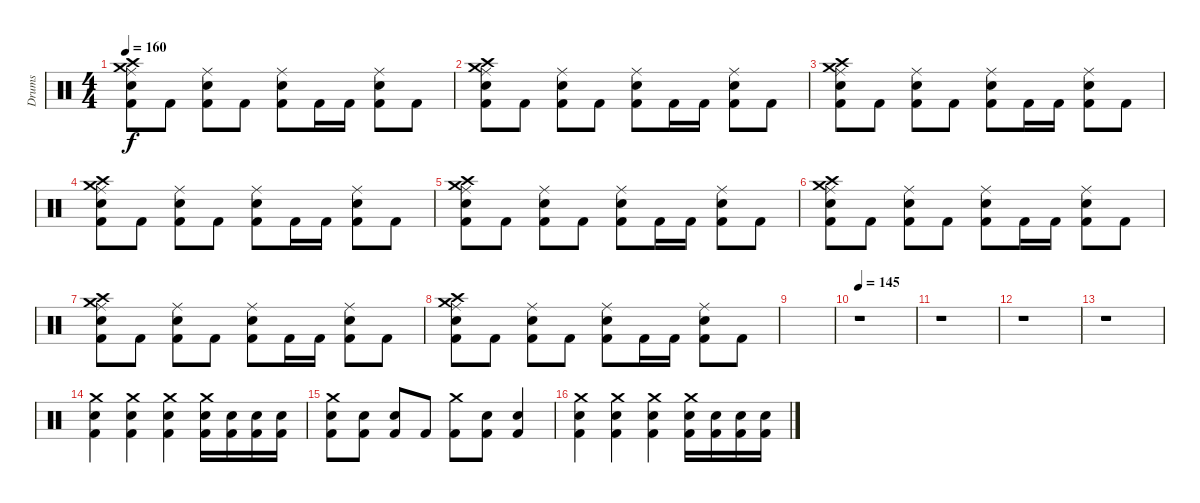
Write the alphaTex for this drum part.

\track ("Drums" "Drums") {instrument percussion}
\staff {score}
\articulation defaults
\ts (4 4)
\tempo 160
\clef neutral
\ks c
("Crash medium (hit)" "Crash high (hit)" "Ride (middle)" "Snare (hit) 2" "Kick (hit) 2").8{dy f} "Kick (hit) 2".8 ("Ride (middle)" "Snare (hit) 2" "Kick (hit) 2").8 "Kick (hit) 2".8 ("Ride (middle)" "Snare (hit) 2" "Kick (hit) 2").8 "Kick (hit) 2".16 "Kick (hit) 2".16 ("Ride (middle)" "Snare (hit) 2" "Kick (hit) 2").8 "Kick (hit) 2".8 |
("Crash medium (hit)" "Crash high (hit)" "Ride (middle)" "Snare (hit) 2" "Kick (hit) 2").8 "Kick (hit) 2".8 ("Ride (middle)" "Snare (hit) 2" "Kick (hit) 2").8 "Kick (hit) 2".8 ("Ride (middle)" "Snare (hit) 2" "Kick (hit) 2").8 "Kick (hit) 2".16 "Kick (hit) 2".16 ("Ride (middle)" "Snare (hit) 2" "Kick (hit) 2").8 "Kick (hit) 2".8 |
("Crash medium (hit)" "Crash high (hit)" "Ride (middle)" "Snare (hit) 2" "Kick (hit) 2").8 "Kick (hit) 2".8 ("Ride (middle)" "Snare (hit) 2" "Kick (hit) 2").8 "Kick (hit) 2".8 ("Ride (middle)" "Snare (hit) 2" "Kick (hit) 2").8 "Kick (hit) 2".16 "Kick (hit) 2".16 ("Ride (middle)" "Snare (hit) 2" "Kick (hit) 2").8 "Kick (hit) 2".8 |
("Crash medium (hit)" "Crash high (hit)" "Ride (middle)" "Snare (hit) 2" "Kick (hit) 2").8 "Kick (hit) 2".8 ("Ride (middle)" "Snare (hit) 2" "Kick (hit) 2").8 "Kick (hit) 2".8 ("Ride (middle)" "Snare (hit) 2" "Kick (hit) 2").8 "Kick (hit) 2".16 "Kick (hit) 2".16 ("Ride (middle)" "Snare (hit) 2" "Kick (hit) 2").8 "Kick (hit) 2".8 |
("Crash medium (hit)" "Crash high (hit)" "Ride (middle)" "Snare (hit) 2" "Kick (hit) 2").8 "Kick (hit) 2".8 ("Ride (middle)" "Snare (hit) 2" "Kick (hit) 2").8 "Kick (hit) 2".8 ("Ride (middle)" "Snare (hit) 2" "Kick (hit) 2").8 "Kick (hit) 2".16 "Kick (hit) 2".16 ("Ride (middle)" "Snare (hit) 2" "Kick (hit) 2").8 "Kick (hit) 2".8 |
("Crash medium (hit)" "Crash high (hit)" "Ride (middle)" "Snare (hit) 2" "Kick (hit) 2").8 "Kick (hit) 2".8 ("Ride (middle)" "Snare (hit) 2" "Kick (hit) 2").8 "Kick (hit) 2".8 ("Ride (middle)" "Snare (hit) 2" "Kick (hit) 2").8 "Kick (hit) 2".16 "Kick (hit) 2".16 ("Ride (middle)" "Snare (hit) 2" "Kick (hit) 2").8 "Kick (hit) 2".8 |
("Crash medium (hit)" "Crash high (hit)" "Ride (middle)" "Snare (hit) 2" "Kick (hit) 2").8 "Kick (hit) 2".8 ("Ride (middle)" "Snare (hit) 2" "Kick (hit) 2").8 "Kick (hit) 2".8 ("Ride (middle)" "Snare (hit) 2" "Kick (hit) 2").8 "Kick (hit) 2".16 "Kick (hit) 2".16 ("Ride (middle)" "Snare (hit) 2" "Kick (hit) 2").8 "Kick (hit) 2".8 |
("Crash medium (hit)" "Crash high (hit)" "Ride (middle)" "Snare (hit) 2" "Kick (hit) 2").8 "Kick (hit) 2".8 ("Ride (middle)" "Snare (hit) 2" "Kick (hit) 2").8 "Kick (hit) 2".8 ("Ride (middle)" "Snare (hit) 2" "Kick (hit) 2").8 "Kick (hit) 2".16 "Kick (hit) 2".16 ("Ride (middle)" "Snare (hit) 2" "Kick (hit) 2").8 "Kick (hit) 2".8 |
|
\tempo 145
r.1 |
r.1 |
r.1 |
r.1 |
("Crash medium (hit)" "Snare (hit) 2" "Kick (hit) 2").4 ("Crash medium (hit)" "Snare (hit) 2" "Kick (hit) 2").4 ("Crash medium (hit)" "Snare (hit) 2" "Kick (hit) 2").4 ("Crash medium (hit)" "Snare (hit) 2" "Kick (hit) 2").16 ("Snare (hit) 2" "Kick (hit) 2").16 ("Snare (hit) 2" "Kick (hit) 2").16 ("Snare (hit) 2" "Kick (hit) 2").16 |
("Crash medium (hit)" "Snare (hit) 2" "Kick (hit) 2").8 ("Snare (hit) 2" "Kick (hit) 2").8 ("Snare (hit) 2" "Kick (hit) 2").8 "Kick (hit) 2".8 ("Crash medium (hit)" "Kick (hit) 2").8 ("Snare (hit) 2" "Kick (hit) 2").8 ("Snare (hit) 2" "Kick (hit) 2").4 |
("Crash medium (hit)" "Snare (hit) 2" "Kick (hit) 2").4 ("Crash medium (hit)" "Snare (hit) 2" "Kick (hit) 2").4 ("Crash medium (hit)" "Snare (hit) 2" "Kick (hit) 2").4 ("Crash medium (hit)" "Snare (hit) 2" "Kick (hit) 2").16 ("Snare (hit) 2" "Kick (hit) 2").16 ("Snare (hit) 2" "Kick (hit) 2").16 ("Snare (hit) 2" "Kick (hit) 2").16
